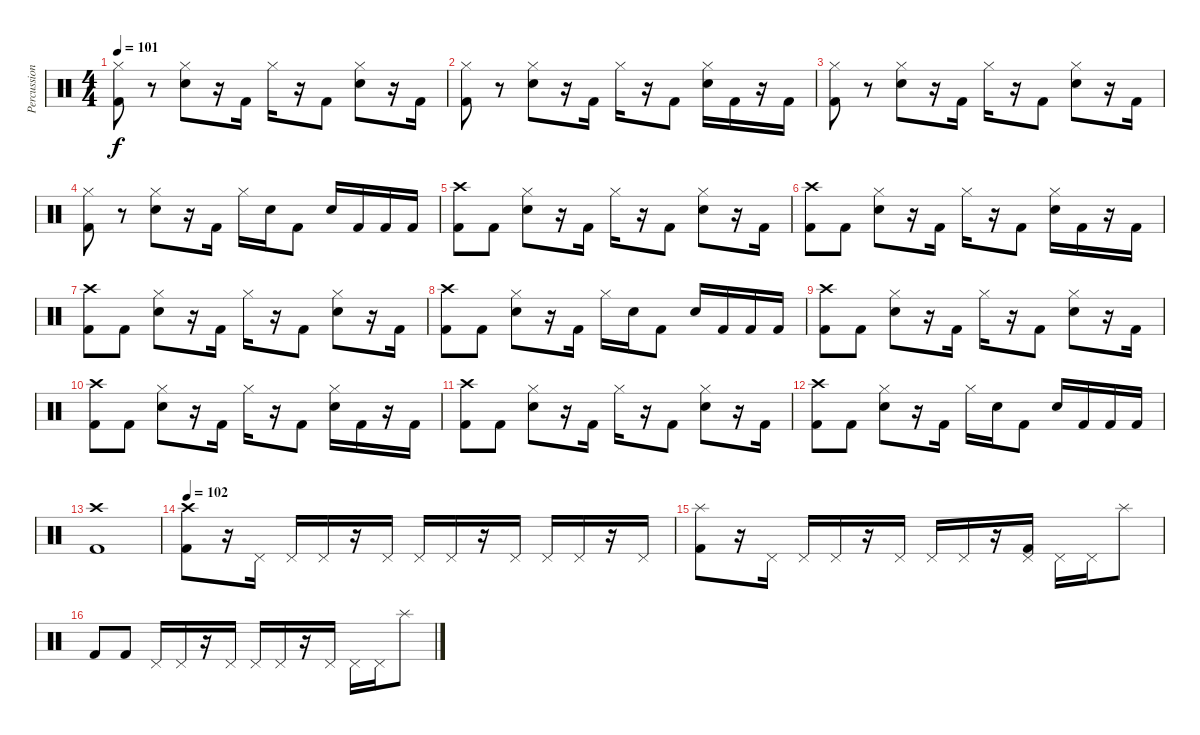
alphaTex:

\track ("Percussions" "Percussion") {instrument percussion}
\staff {score}
\articulation defaults
\ts (4 4)
\tempo 101
\clef neutral
\ks c
("Hi-Hat (closed)" "Kick (hit) 2").8{dy f} r.8 ("Snare (hit) 2" "Hi-Hat (closed)").8 r.16 "Kick (hit) 2".16 "Hi-Hat (closed)".16 r.16 "Kick (hit) 2".8 ("Snare (hit) 2" "Hi-Hat (closed)").8 r.16 "Kick (hit) 2".16 |
("Hi-Hat (closed)" "Kick (hit) 2").8 r.8 ("Snare (hit) 2" "Hi-Hat (closed)").8 r.16 "Kick (hit) 2".16 "Hi-Hat (closed)".16 r.16 "Kick (hit) 2".8 ("Snare (hit) 2" "Hi-Hat (closed)").16 "Kick (hit) 2".16 r.16 "Kick (hit) 2".16 |
("Hi-Hat (closed)" "Kick (hit) 2").8 r.8 ("Snare (hit) 2" "Hi-Hat (closed)").8 r.16 "Kick (hit) 2".16 "Hi-Hat (closed)".16 r.16 "Kick (hit) 2".8 ("Snare (hit) 2" "Hi-Hat (closed)").8 r.16 "Kick (hit) 2".16 |
("Hi-Hat (closed)" "Kick (hit) 2").8 r.8 ("Snare (hit) 2" "Hi-Hat (closed)").8 r.16 "Kick (hit) 2".16 "Hi-Hat (closed)".16 "Snare (hit) 2".16 "Kick (hit) 2".8 "Snare (hit) 2".16 "Kick (hit) 2".16 "Kick (hit) 2".16 "Kick (hit) 2".16 |
("Crash high (hit)" "Kick (hit) 2").8 "Kick (hit) 2".8 ("Snare (hit) 2" "Hi-Hat (closed)").8 r.16 "Kick (hit) 2".16 "Hi-Hat (closed)".16 r.16 "Kick (hit) 2".8 ("Snare (hit) 2" "Hi-Hat (closed)").8 r.16 "Kick (hit) 2".16 |
("Crash high (hit)" "Kick (hit) 2").8 "Kick (hit) 2".8 ("Snare (hit) 2" "Hi-Hat (closed)").8 r.16 "Kick (hit) 2".16 "Hi-Hat (closed)".16 r.16 "Kick (hit) 2".8 ("Snare (hit) 2" "Hi-Hat (closed)").16 "Kick (hit) 2".16 r.16 "Kick (hit) 2".16 |
("Crash high (hit)" "Kick (hit) 2").8 "Kick (hit) 2".8 ("Snare (hit) 2" "Hi-Hat (closed)").8 r.16 "Kick (hit) 2".16 "Hi-Hat (closed)".16 r.16 "Kick (hit) 2".8 ("Snare (hit) 2" "Hi-Hat (closed)").8 r.16 "Kick (hit) 2".16 |
("Crash high (hit)" "Kick (hit) 2").8 "Kick (hit) 2".8 ("Snare (hit) 2" "Hi-Hat (closed)").8 r.16 "Kick (hit) 2".16 "Hi-Hat (closed)".16 "Snare (hit) 2".16 "Kick (hit) 2".8 "Snare (hit) 2".16 "Kick (hit) 2".16 "Kick (hit) 2".16 "Kick (hit) 2".16 |
("Crash high (hit)" "Kick (hit) 2").8 "Kick (hit) 2".8 ("Snare (hit) 2" "Hi-Hat (closed)").8 r.16 "Kick (hit) 2".16 "Hi-Hat (closed)".16 r.16 "Kick (hit) 2".8 ("Snare (hit) 2" "Hi-Hat (closed)").8 r.16 "Kick (hit) 2".16 |
("Crash high (hit)" "Kick (hit) 2").8 "Kick (hit) 2".8 ("Snare (hit) 2" "Hi-Hat (closed)").8 r.16 "Kick (hit) 2".16 "Hi-Hat (closed)".16 r.16 "Kick (hit) 2".8 ("Snare (hit) 2" "Hi-Hat (closed)").16 "Kick (hit) 2".16 r.16 "Kick (hit) 2".16 |
("Crash high (hit)" "Kick (hit) 2").8 "Kick (hit) 2".8 ("Snare (hit) 2" "Hi-Hat (closed)").8 r.16 "Kick (hit) 2".16 "Hi-Hat (closed)".16 r.16 "Kick (hit) 2".8 ("Snare (hit) 2" "Hi-Hat (closed)").8 r.16 "Kick (hit) 2".16 |
("Crash high (hit)" "Kick (hit) 2").8 "Kick (hit) 2".8 ("Snare (hit) 2" "Hi-Hat (closed)").8 r.16 "Kick (hit) 2".16 "Hi-Hat (closed)".16 "Snare (hit) 2".16 "Kick (hit) 2".8 "Snare (hit) 2".16 "Kick (hit) 2".16 "Kick (hit) 2".16 "Kick (hit) 2".16 |
("Crash high (hit)" "Kick (hit) 2").1 |
\tempo 102
("Crash high (hit)" "Kick (hit) 2").8{volume 5} r.16 "Pedal Hi-Hat (hit)".16 "Pedal Hi-Hat (hit)".16 "Pedal Hi-Hat (hit)".16 r.16 "Pedal Hi-Hat (hit)".16 "Pedal Hi-Hat (hit)".16 "Pedal Hi-Hat (hit)".16 r.16 "Pedal Hi-Hat (hit)".16 "Pedal Hi-Hat (hit)".16 "Pedal Hi-Hat (hit)".16 r.16 "Pedal Hi-Hat (hit)".16 |
("Splash (hit)" "Kick (hit) 2").8 r.16 "Pedal Hi-Hat (hit)".16 "Pedal Hi-Hat (hit)".16 "Pedal Hi-Hat (hit)".16 r.16 "Pedal Hi-Hat (hit)".16 "Pedal Hi-Hat (hit)".16 "Pedal Hi-Hat (hit)".16 r.16 ("Pedal Hi-Hat (hit)" "Kick (hit) 2").16 "Pedal Hi-Hat (hit)".16 "Pedal Hi-Hat (hit)".16 "Splash (hit)".8 |
"Kick (hit) 2".8 "Kick (hit) 2".8 "Pedal Hi-Hat (hit)".16 "Pedal Hi-Hat (hit)".16 r.16 "Pedal Hi-Hat (hit)".16 "Pedal Hi-Hat (hit)".16 "Pedal Hi-Hat (hit)".16 r.16 "Pedal Hi-Hat (hit)".16 "Pedal Hi-Hat (hit)".16 "Pedal Hi-Hat (hit)".16 "Splash (hit)".8
